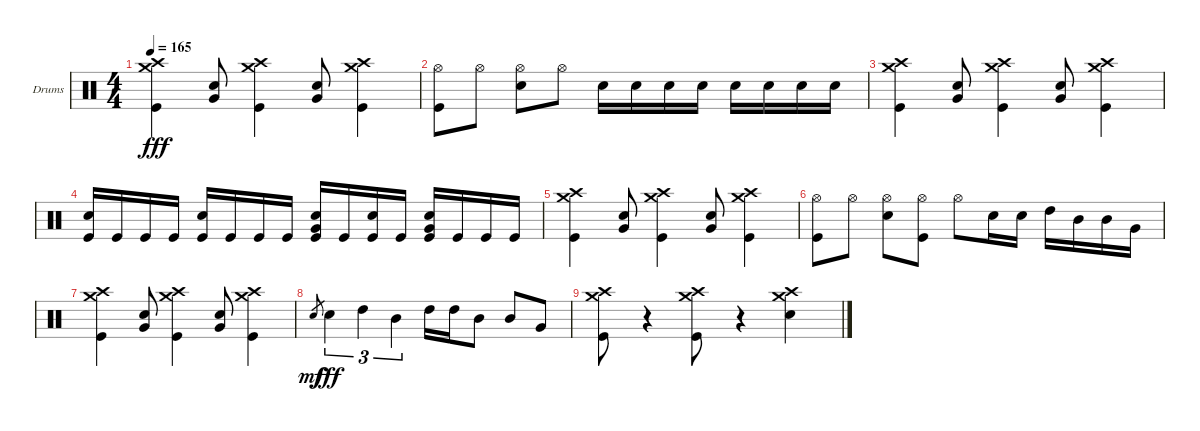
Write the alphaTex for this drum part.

\defaultSystemsLayout 4
\bracketExtendMode groupsimilarinstruments
\firstSystemTrackNameOrientation horizontal
\otherSystemsTrackNameOrientation horizontal
\track ("Drumkit" "Drums") {instrument percussion}
\staff {score}
\articulation defaults
\ts (4 4)
\tempo 165
\clef neutral
\ks c
("Crash high (hit)" "Crash medium (hit)" "Kick (hit)").4{dy fff} ("Snare (hit) 2" "Very Low Tom (hit)").8 ("Crash high (hit)" "Crash medium (hit)" "Kick (hit)").4 ("Snare (hit) 2" "Very Low Tom (hit)").8 ("Crash high (hit)" "Crash medium (hit)" "Kick (hit)").4 |
("Hi-Hat (open)" "Kick (hit)").8 "Hi-Hat (open)".8 ("Hi-Hat (open)" "Snare (hit) 2").8 "Hi-Hat (open)".8 "Snare (hit) 2".16 "Snare (hit) 2".16 "Snare (hit) 2".16 "Snare (hit) 2".16 "Snare (hit) 2".16 "Snare (hit) 2".16 "Snare (hit) 2".16 "Snare (hit) 2".16 |
("Crash high (hit)" "Crash medium (hit)" "Kick (hit)").4 ("Snare (hit) 2" "Very Low Tom (hit)").8 ("Crash high (hit)" "Crash medium (hit)" "Kick (hit)").4 ("Snare (hit) 2" "Very Low Tom (hit)").8 ("Crash high (hit)" "Crash medium (hit)" "Kick (hit)").4 |
("Snare (hit) 2" "Kick (hit)").16 "Kick (hit)".16 "Kick (hit)".16 "Kick (hit)".16 ("Snare (hit) 2" "Kick (hit)").16 "Kick (hit)".16 "Kick (hit)".16 "Kick (hit)".16 ("Snare (hit) 2" "Very Low Tom (hit)" "Kick (hit)").16 "Kick (hit)".16 ("Snare (hit) 2" "Kick (hit)").16 "Kick (hit)".16 ("Snare (hit) 2" "Very Low Tom (hit)" "Kick (hit)").16 "Kick (hit)".16 "Kick (hit)".16 "Kick (hit)".16 |
("Crash high (hit)" "Crash medium (hit)" "Kick (hit)").4 ("Snare (hit) 2" "Very Low Tom (hit)").8 ("Crash high (hit)" "Crash medium (hit)" "Kick (hit)").4 ("Snare (hit) 2" "Very Low Tom (hit)").8 ("Crash high (hit)" "Crash medium (hit)" "Kick (hit)").4 |
("Hi-Hat (open)" "Kick (hit)").8 "Hi-Hat (open)".8 ("Hi-Hat (open)" "Snare (hit) 2").8 ("Hi-Hat (open)" "Kick (hit)").8 "Hi-Hat (open)".8 "Snare (hit) 2".16 "Snare (hit) 2".16 "High Tom (hit)".16 "Mid Tom (hit)".16 "Mid Tom (hit)".16 "Very Low Tom (hit)".16 |
("Crash high (hit)" "Crash medium (hit)" "Kick (hit)").4 ("Snare (hit) 2" "Very Low Tom (hit)").8 ("Crash high (hit)" "Crash medium (hit)" "Kick (hit)").4 ("Snare (hit) 2" "Very Low Tom (hit)").8 ("Crash high (hit)" "Crash medium (hit)" "Kick (hit)").4 |
"Snare (hit) 2".8{gr dy mf} "Snare (hit) 2".4{tu (3 2) dy fff} "High Tom (hit)".4{tu (3 2)} "Mid Tom (hit)".4{tu (3 2)} "High Tom (hit)".16 "High Tom (hit)".16 "Mid Tom (hit)".8 "Mid Tom (hit)".8 "Very Low Tom (hit)".8 |
("Crash high (hit)" "Crash medium (hit)" "Kick (hit)").8 r.4 ("Crash high (hit)" "Crash medium (hit)" "Kick (hit)").8 r.4 ("Crash high (hit)" "Crash medium (hit)" "Snare (hit) 2").4
